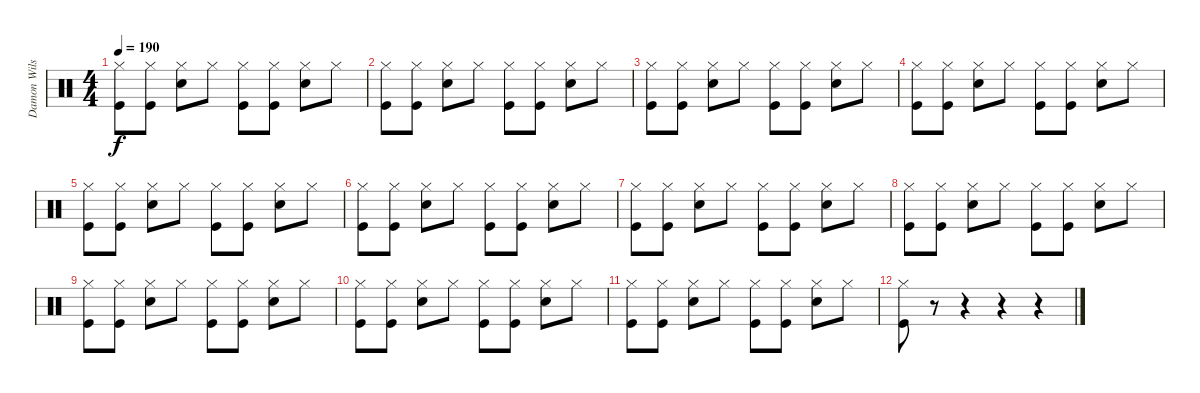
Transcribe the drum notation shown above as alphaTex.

\track ("Damon Wilson" "Damon Wils") {instrument percussion}
\staff {score}
\articulation defaults
\ts (4 4)
\tempo 190
\clef neutral
\ks c
("Hi-Hat (closed)" "Kick (hit)").8{dy f} ("Hi-Hat (closed)" "Kick (hit)").8 ("Hi-Hat (closed)" "Snare (hit) 2").8 "Hi-Hat (closed)".8 ("Hi-Hat (closed)" "Kick (hit)").8 ("Hi-Hat (closed)" "Kick (hit)").8 ("Hi-Hat (closed)" "Snare (hit) 2").8 "Hi-Hat (closed)".8 |
("Hi-Hat (closed)" "Kick (hit)").8 ("Hi-Hat (closed)" "Kick (hit)").8 ("Hi-Hat (closed)" "Snare (hit) 2").8 "Hi-Hat (closed)".8 ("Hi-Hat (closed)" "Kick (hit)").8 ("Hi-Hat (closed)" "Kick (hit)").8 ("Hi-Hat (closed)" "Snare (hit) 2").8 "Hi-Hat (closed)".8 |
("Hi-Hat (closed)" "Kick (hit)").8 ("Hi-Hat (closed)" "Kick (hit)").8 ("Hi-Hat (closed)" "Snare (hit) 2").8 "Hi-Hat (closed)".8 ("Hi-Hat (closed)" "Kick (hit)").8 ("Hi-Hat (closed)" "Kick (hit)").8 ("Hi-Hat (closed)" "Snare (hit) 2").8 "Hi-Hat (closed)".8 |
("Hi-Hat (closed)" "Kick (hit)").8 ("Hi-Hat (closed)" "Kick (hit)").8 ("Hi-Hat (closed)" "Snare (hit) 2").8 "Hi-Hat (closed)".8 ("Hi-Hat (closed)" "Kick (hit)").8 ("Hi-Hat (closed)" "Kick (hit)").8 ("Hi-Hat (closed)" "Snare (hit) 2").8 "Hi-Hat (closed)".8 |
("Hi-Hat (closed)" "Kick (hit)").8 ("Hi-Hat (closed)" "Kick (hit)").8 ("Hi-Hat (closed)" "Snare (hit) 2").8 "Hi-Hat (closed)".8 ("Hi-Hat (closed)" "Kick (hit)").8 ("Hi-Hat (closed)" "Kick (hit)").8 ("Hi-Hat (closed)" "Snare (hit) 2").8 "Hi-Hat (closed)".8 |
("Hi-Hat (closed)" "Kick (hit)").8 ("Hi-Hat (closed)" "Kick (hit)").8 ("Hi-Hat (closed)" "Snare (hit) 2").8 "Hi-Hat (closed)".8 ("Hi-Hat (closed)" "Kick (hit)").8 ("Hi-Hat (closed)" "Kick (hit)").8 ("Hi-Hat (closed)" "Snare (hit) 2").8 "Hi-Hat (closed)".8 |
("Hi-Hat (closed)" "Kick (hit)").8 ("Hi-Hat (closed)" "Kick (hit)").8 ("Hi-Hat (closed)" "Snare (hit) 2").8 "Hi-Hat (closed)".8 ("Hi-Hat (closed)" "Kick (hit)").8 ("Hi-Hat (closed)" "Kick (hit)").8 ("Hi-Hat (closed)" "Snare (hit) 2").8 "Hi-Hat (closed)".8 |
("Hi-Hat (closed)" "Kick (hit)").8 ("Hi-Hat (closed)" "Kick (hit)").8 ("Hi-Hat (closed)" "Snare (hit) 2").8 "Hi-Hat (closed)".8 ("Hi-Hat (closed)" "Kick (hit)").8 ("Hi-Hat (closed)" "Kick (hit)").8 ("Hi-Hat (closed)" "Snare (hit) 2").8 "Hi-Hat (closed)".8 |
("Hi-Hat (closed)" "Kick (hit)").8 ("Hi-Hat (closed)" "Kick (hit)").8 ("Hi-Hat (closed)" "Snare (hit) 2").8 "Hi-Hat (closed)".8 ("Hi-Hat (closed)" "Kick (hit)").8 ("Hi-Hat (closed)" "Kick (hit)").8 ("Hi-Hat (closed)" "Snare (hit) 2").8 "Hi-Hat (closed)".8 |
("Hi-Hat (closed)" "Kick (hit)").8 ("Hi-Hat (closed)" "Kick (hit)").8 ("Hi-Hat (closed)" "Snare (hit) 2").8 "Hi-Hat (closed)".8 ("Hi-Hat (closed)" "Kick (hit)").8 ("Hi-Hat (closed)" "Kick (hit)").8 ("Hi-Hat (closed)" "Snare (hit) 2").8 "Hi-Hat (closed)".8 |
("Hi-Hat (closed)" "Kick (hit)").8 ("Hi-Hat (closed)" "Kick (hit)").8 ("Hi-Hat (closed)" "Snare (hit) 2").8 "Hi-Hat (closed)".8 ("Hi-Hat (closed)" "Kick (hit)").8 ("Hi-Hat (closed)" "Kick (hit)").8 ("Hi-Hat (closed)" "Snare (hit) 2").8 "Hi-Hat (closed)".8 |
("Hi-Hat (closed)" "Kick (hit)").8 r.8 r.4 r.4 r.4
